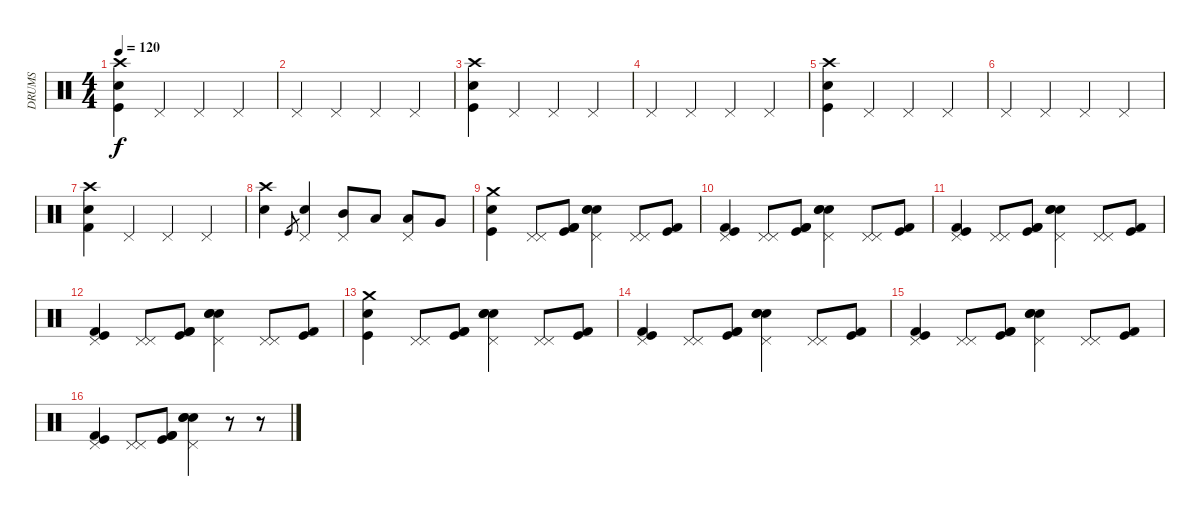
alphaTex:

\track ("DRUMS" "DRUMS") {instrument percussion}
\staff {score}
\articulation defaults
\ts (4 4)
\tempo 120
\clef neutral
\ks c
("Crash high (hit)" "Snare (hit) 2" "Kick (hit)").4{dy f} "Pedal Hi-Hat (hit)".4 "Pedal Hi-Hat (hit)".4 "Pedal Hi-Hat (hit)".4 |
"Pedal Hi-Hat (hit)".4 "Pedal Hi-Hat (hit)".4 "Pedal Hi-Hat (hit)".4 "Pedal Hi-Hat (hit)".4 |
("Crash high (hit)" "Snare (hit) 2" "Kick (hit)").4 "Pedal Hi-Hat (hit)".4 "Pedal Hi-Hat (hit)".4 "Pedal Hi-Hat (hit)".4 |
"Pedal Hi-Hat (hit)".4 "Pedal Hi-Hat (hit)".4 "Pedal Hi-Hat (hit)".4 "Pedal Hi-Hat (hit)".4 |
("Crash high (hit)" "Snare (hit) 2" "Kick (hit)").4 "Pedal Hi-Hat (hit)".4 "Pedal Hi-Hat (hit)".4 "Pedal Hi-Hat (hit)".4 |
"Pedal Hi-Hat (hit)".4 "Pedal Hi-Hat (hit)".4 "Pedal Hi-Hat (hit)".4 "Pedal Hi-Hat (hit)".4 |
("Crash high (hit)" "Snare (hit) 2" "Kick (hit) 2").4 "Pedal Hi-Hat (hit)".4 "Pedal Hi-Hat (hit)".4 "Pedal Hi-Hat (hit)".4 |
("Snare (hit) 2" "Crash high (hit)").4 "Kick (hit)".8{gr} ("Pedal Hi-Hat (hit)" "Snare (hit) 2").4 ("Pedal Hi-Hat (hit)" "Mid Tom (hit)").8 "Low Tom (hit)".8 ("Low Floor Tom (hit)" "Pedal Hi-Hat (hit)").8 "Very Low Tom (hit)".8 |
("Crash medium (hit)" "Snare (hit) 2" "Kick (hit)").4 ("Pedal Hi-Hat (hit)" "Pedal Hi-Hat (hit)").8 ("Kick (hit) 2" "Kick (hit)" "Kick (hit) 2").8 ("Snare (hit) 2" "Snare (hit) 2" "Pedal Hi-Hat (hit)" "Electric Snare (hit)").4 ("Pedal Hi-Hat (hit)" "Pedal Hi-Hat (hit)").8 ("Kick (hit)" "Kick (hit) 2").8 |
("Pedal Hi-Hat (hit)" "Kick (hit) 2" "Kick (hit)").4 ("Pedal Hi-Hat (hit)" "Pedal Hi-Hat (hit)").8 ("Kick (hit) 2" "Kick (hit)" "Kick (hit) 2").8 ("Snare (hit) 2" "Snare (hit) 2" "Pedal Hi-Hat (hit)" "Electric Snare (hit)").4 ("Pedal Hi-Hat (hit)" "Pedal Hi-Hat (hit)").8 ("Kick (hit)" "Kick (hit) 2").8 |
("Pedal Hi-Hat (hit)" "Kick (hit) 2" "Kick (hit)").4 ("Pedal Hi-Hat (hit)" "Pedal Hi-Hat (hit)").8 ("Kick (hit) 2" "Kick (hit)" "Kick (hit) 2").8 ("Snare (hit) 2" "Snare (hit) 2" "Pedal Hi-Hat (hit)" "Electric Snare (hit)").4 ("Pedal Hi-Hat (hit)" "Pedal Hi-Hat (hit)").8 ("Kick (hit)" "Kick (hit) 2").8 |
("Pedal Hi-Hat (hit)" "Kick (hit) 2" "Kick (hit)").4 ("Pedal Hi-Hat (hit)" "Pedal Hi-Hat (hit)").8 ("Kick (hit) 2" "Kick (hit)" "Kick (hit) 2").8 ("Snare (hit) 2" "Snare (hit) 2" "Pedal Hi-Hat (hit)" "Electric Snare (hit)").4 ("Pedal Hi-Hat (hit)" "Pedal Hi-Hat (hit)").8 ("Kick (hit)" "Kick (hit) 2").8 |
("Crash medium (hit)" "Snare (hit) 2" "Kick (hit)").4 ("Pedal Hi-Hat (hit)" "Pedal Hi-Hat (hit)").8 ("Kick (hit) 2" "Kick (hit)" "Kick (hit) 2").8 ("Snare (hit) 2" "Snare (hit) 2" "Pedal Hi-Hat (hit)" "Electric Snare (hit)").4 ("Pedal Hi-Hat (hit)" "Pedal Hi-Hat (hit)").8 ("Kick (hit)" "Kick (hit) 2").8 |
("Pedal Hi-Hat (hit)" "Kick (hit) 2" "Kick (hit)").4 ("Pedal Hi-Hat (hit)" "Pedal Hi-Hat (hit)").8 ("Kick (hit) 2" "Kick (hit)" "Kick (hit) 2").8 ("Snare (hit) 2" "Snare (hit) 2" "Pedal Hi-Hat (hit)" "Electric Snare (hit)").4 ("Pedal Hi-Hat (hit)" "Pedal Hi-Hat (hit)").8 ("Kick (hit)" "Kick (hit) 2").8 |
("Pedal Hi-Hat (hit)" "Kick (hit) 2" "Kick (hit)").4 ("Pedal Hi-Hat (hit)" "Pedal Hi-Hat (hit)").8 ("Kick (hit) 2" "Kick (hit)" "Kick (hit) 2").8 ("Snare (hit) 2" "Snare (hit) 2" "Pedal Hi-Hat (hit)" "Electric Snare (hit)").4 ("Pedal Hi-Hat (hit)" "Pedal Hi-Hat (hit)").8 ("Kick (hit)" "Kick (hit) 2").8 |
("Pedal Hi-Hat (hit)" "Kick (hit) 2" "Kick (hit)").4 ("Pedal Hi-Hat (hit)" "Pedal Hi-Hat (hit)").8 ("Kick (hit) 2" "Kick (hit)" "Kick (hit) 2").8 ("Snare (hit) 2" "Snare (hit) 2" "Pedal Hi-Hat (hit)" "Electric Snare (hit)").4 r.8 r.8
